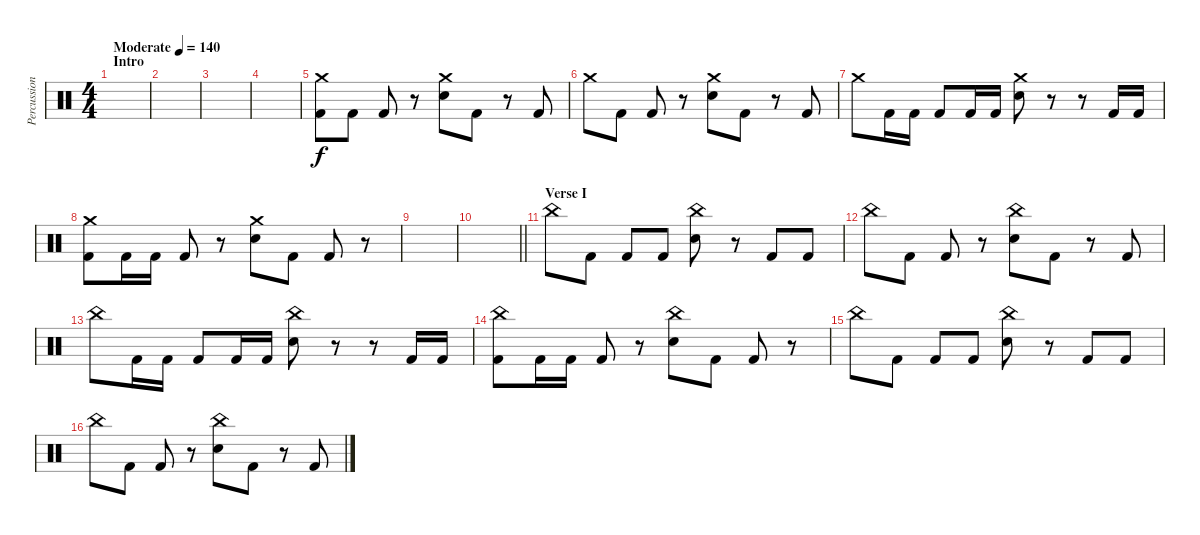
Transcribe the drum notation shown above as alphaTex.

\track ("Percussion" "Percussion") {instrument percussion}
\staff {score}
\articulation defaults
\ts (4 4)
\section ("" "Intro")
\tempo (140 "Moderate")
\clef neutral
\ks c
|
|
|
|
("Crash medium (hit)" "Kick (hit) 2").8 "Kick (hit) 2".8 "Kick (hit) 2".8 r.8 ("Crash medium (hit)" "Snare (hit) 2").8 "Kick (hit) 2".8 r.8 "Kick (hit) 2".8 |
"Crash medium (hit)".8 "Kick (hit) 2".8 "Kick (hit) 2".8 r.8 ("Crash medium (hit)" "Snare (hit) 2").8 "Kick (hit) 2".8 r.8 "Kick (hit) 2".8 |
"Crash medium (hit)".8 "Kick (hit) 2".16 "Kick (hit) 2".16 "Kick (hit) 2".8 "Kick (hit) 2".16 "Kick (hit) 2".16 ("Crash medium (hit)" "Snare (hit) 2").8 r.8 r.8 "Kick (hit) 2".16 "Kick (hit) 2".16 |
("Crash medium (hit)" "Kick (hit) 2").8 "Kick (hit) 2".16 "Kick (hit) 2".16 "Kick (hit) 2".8 r.8 ("Crash medium (hit)" "Snare (hit) 2").8 "Kick (hit) 2".8 "Kick (hit) 2".8 r.8 |
|
\barLineRight lightlight
|
\section ("" "Verse I")
"China (hit)".8 "Kick (hit) 2".8 "Kick (hit) 2".8 "Kick (hit) 2".8 ("China (hit)" "Snare (hit) 2").8 r.8 "Kick (hit) 2".8 "Kick (hit) 2".8 |
"China (hit)".8 "Kick (hit) 2".8 "Kick (hit) 2".8 r.8 ("China (hit)" "Snare (hit) 2").8 "Kick (hit) 2".8 r.8 "Kick (hit) 2".8 |
"China (hit)".8 "Kick (hit) 2".16 "Kick (hit) 2".16 "Kick (hit) 2".8 "Kick (hit) 2".16 "Kick (hit) 2".16 ("China (hit)" "Snare (hit) 2").8 r.8 r.8 "Kick (hit) 2".16 "Kick (hit) 2".16 |
("China (hit)" "Kick (hit) 2").8 "Kick (hit) 2".16 "Kick (hit) 2".16 "Kick (hit) 2".8 r.8 ("China (hit)" "Snare (hit) 2").8 "Kick (hit) 2".8 "Kick (hit) 2".8 r.8 |
"China (hit)".8 "Kick (hit) 2".8 "Kick (hit) 2".8 "Kick (hit) 2".8 ("China (hit)" "Snare (hit) 2").8 r.8 "Kick (hit) 2".8 "Kick (hit) 2".8 |
"China (hit)".8 "Kick (hit) 2".8 "Kick (hit) 2".8 r.8 ("China (hit)" "Snare (hit) 2").8 "Kick (hit) 2".8 r.8 "Kick (hit) 2".8
